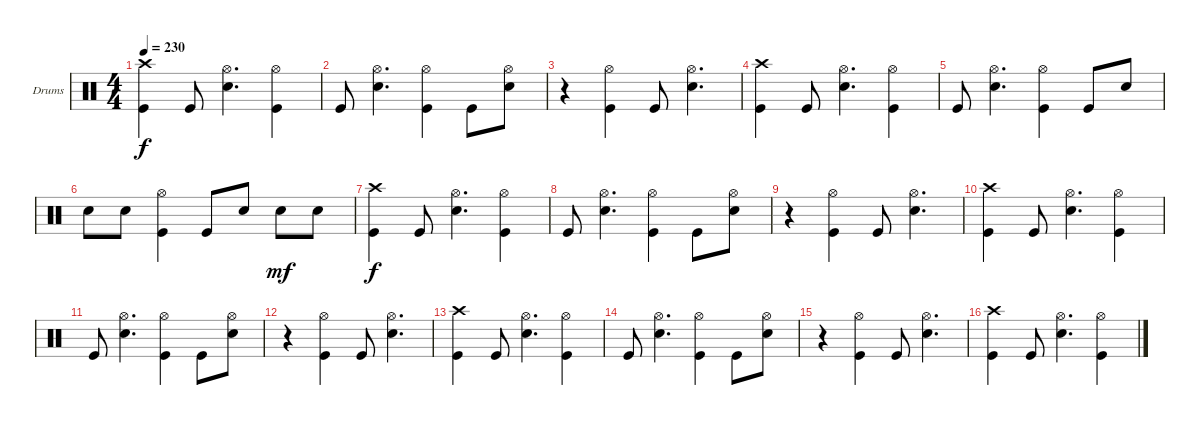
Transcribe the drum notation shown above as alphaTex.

\bracketExtendMode groupsimilarinstruments
\firstSystemTrackNameOrientation horizontal
\otherSystemsTrackNameOrientation horizontal
\track ("Drumkit" "Drums") {instrument percussion}
\staff {score}
\articulation defaults
\ts (4 4)
\tempo 230
\clef neutral
\ks c
("Crash high (hit)" "Kick (hit)").4{dy f} "Kick (hit)".8 ("Hi-Hat (open)" "Snare (hit) 2").4{d} ("Hi-Hat (open)" "Kick (hit)").4 |
"Kick (hit)".8 ("Hi-Hat (open)" "Snare (hit) 2").4{d} ("Hi-Hat (open)" "Kick (hit)").4 "Kick (hit)".8 ("Hi-Hat (open)" "Snare (hit) 2").8 |
r.4 ("Hi-Hat (open)" "Kick (hit)").4 "Kick (hit)".8 ("Hi-Hat (open)" "Snare (hit) 2").4{d} |
("Crash high (hit)" "Kick (hit)").4 "Kick (hit)".8 ("Hi-Hat (open)" "Snare (hit) 2").4{d} ("Hi-Hat (open)" "Kick (hit)").4 |
"Kick (hit)".8 ("Hi-Hat (open)" "Snare (hit) 2").4{d} ("Hi-Hat (open)" "Kick (hit)").4 "Kick (hit)".8 "Snare (hit) 2".8 |
"Snare (hit) 2".8 "Snare (hit) 2".8 ("Hi-Hat (open)" "Kick (hit)").4 "Kick (hit)".8 "Snare (hit) 2".8 "Snare (hit) 2".8{dy mf} "Snare (hit) 2".8 |
("Crash high (hit)" "Kick (hit)").4{dy f} "Kick (hit)".8 ("Hi-Hat (open)" "Snare (hit) 2").4{d} ("Hi-Hat (open)" "Kick (hit)").4 |
"Kick (hit)".8 ("Hi-Hat (open)" "Snare (hit) 2").4{d} ("Hi-Hat (open)" "Kick (hit)").4 "Kick (hit)".8 ("Hi-Hat (open)" "Snare (hit) 2").8 |
r.4 ("Hi-Hat (open)" "Kick (hit)").4 "Kick (hit)".8 ("Hi-Hat (open)" "Snare (hit) 2").4{d} |
("Crash high (hit)" "Kick (hit)").4 "Kick (hit)".8 ("Hi-Hat (open)" "Snare (hit) 2").4{d} ("Hi-Hat (open)" "Kick (hit)").4 |
"Kick (hit)".8 ("Hi-Hat (open)" "Snare (hit) 2").4{d} ("Hi-Hat (open)" "Kick (hit)").4 "Kick (hit)".8 ("Hi-Hat (open)" "Snare (hit) 2").8 |
r.4 ("Hi-Hat (open)" "Kick (hit)").4 "Kick (hit)".8 ("Hi-Hat (open)" "Snare (hit) 2").4{d} |
("Crash high (hit)" "Kick (hit)").4 "Kick (hit)".8 ("Hi-Hat (open)" "Snare (hit) 2").4{d} ("Hi-Hat (open)" "Kick (hit)").4 |
"Kick (hit)".8 ("Hi-Hat (open)" "Snare (hit) 2").4{d} ("Hi-Hat (open)" "Kick (hit)").4 "Kick (hit)".8 ("Hi-Hat (open)" "Snare (hit) 2").8 |
r.4 ("Hi-Hat (open)" "Kick (hit)").4 "Kick (hit)".8 ("Hi-Hat (open)" "Snare (hit) 2").4{d} |
("Crash high (hit)" "Kick (hit)").4 "Kick (hit)".8 ("Hi-Hat (open)" "Snare (hit) 2").4{d} ("Hi-Hat (open)" "Kick (hit)").4
